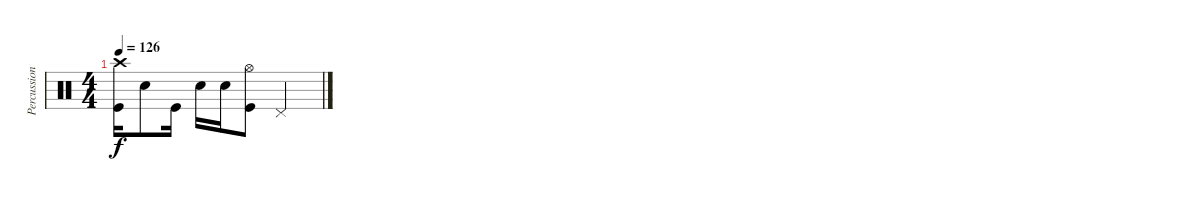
\track ("Percussion" "Percussion") {instrument percussion}
\staff {score}
\articulation defaults
\ts (4 4)
\tempo 126
\clef neutral
\ks c
("Crash high (hit)" "Kick (hit)").16{dy f} "Electric Snare (hit)".8 "Kick (hit)".16 "Electric Snare (hit)".16 "Electric Snare (hit)".16 ("Hi-Hat (open)" "Kick (hit)").8 "Pedal Hi-Hat (hit)".2
